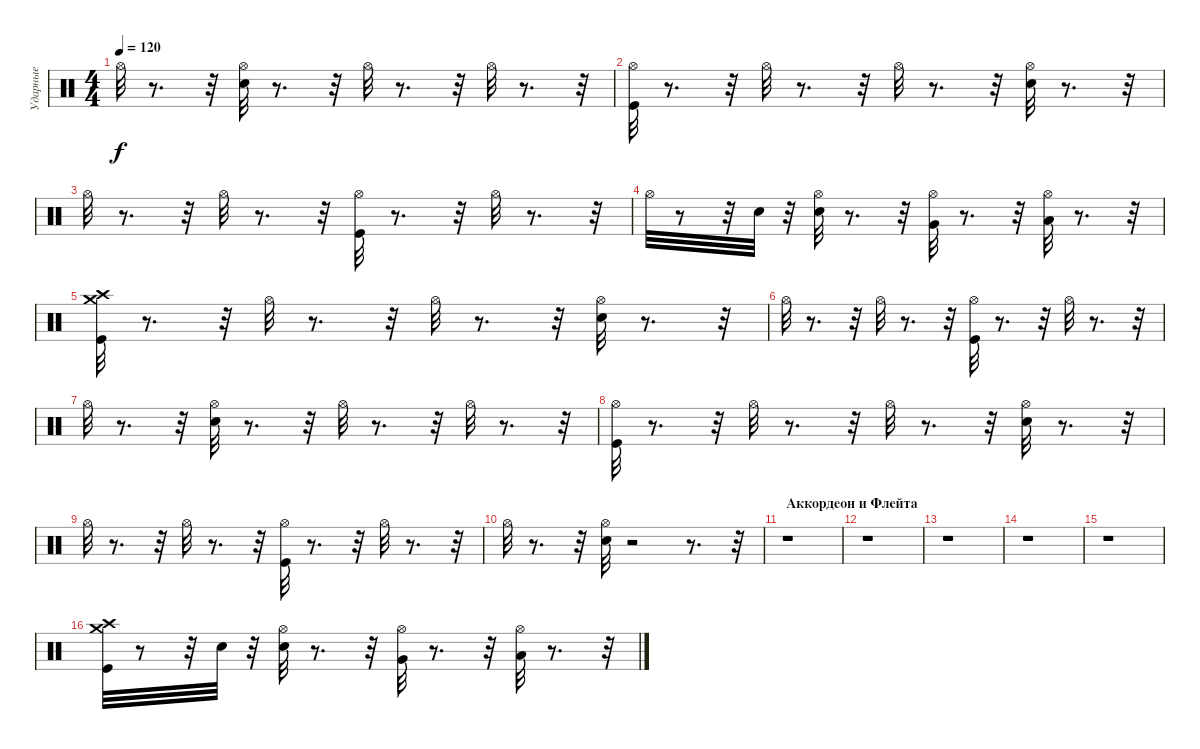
\track ("Ударные" "Ударные") {instrument percussion}
\staff {score}
\articulation defaults
\ts (4 4)
\tempo 120
\clef neutral
\ks c "Hi-Hat (open)".32{dy f}
r.8{d} r.32 ("Hi-Hat (open)" "Snare (hit) 2").32 r.8{d} r.32 "Hi-Hat (open)".32 r.8{d} r.32 "Hi-Hat (open)".32 r.8{d} r.32 |
("Hi-Hat (open)" "Kick (hit)").32 r.8{d} r.32 "Hi-Hat (open)".32 r.8{d} r.32 "Hi-Hat (open)".32 r.8{d} r.32 ("Hi-Hat (open)" "Snare (hit) 2").32 r.8{d} r.32 |
"Hi-Hat (open)".32 r.8{d} r.32 "Hi-Hat (open)".32 r.8{d} r.32 ("Hi-Hat (open)" "Kick (hit)").32 r.8{d} r.32 "Hi-Hat (open)".32 r.8{d} r.32 |
"Hi-Hat (open)".32 r.8 r.32 "Snare (hit) 2".32 r.32 ("Hi-Hat (open)" "Snare (hit) 2").32 r.8{d} r.32 ("Very Low Tom (hit)" "Hi-Hat (open)").32 r.8{d} r.32 ("Low Floor Tom (hit)" "Hi-Hat (open)").32 r.8{d} r.32 |
("Crash high (hit)" "Crash medium (hit)" "Kick (hit)").32 r.8{d} r.32 "Hi-Hat (open)".32 r.8{d} r.32 "Hi-Hat (open)".32 r.8{d} r.32 ("Snare (hit) 2" "Hi-Hat (open)").32 r.8{d} r.32 |
"Hi-Hat (open)".32 r.8{d} r.32 "Hi-Hat (open)".32 r.8{d} r.32 ("Hi-Hat (open)" "Kick (hit)").32 r.8{d} r.32 "Hi-Hat (open)".32 r.8{d} r.32 |
"Hi-Hat (open)".32 r.8{d} r.32 ("Hi-Hat (open)" "Snare (hit) 2").32 r.8{d} r.32 "Hi-Hat (open)".32 r.8{d} r.32 "Hi-Hat (open)".32 r.8{d} r.32 |
("Kick (hit)" "Hi-Hat (open)").32 r.8{d} r.32 "Hi-Hat (open)".32 r.8{d} r.32 "Hi-Hat (open)".32 r.8{d} r.32 ("Hi-Hat (open)" "Snare (hit) 2").32 r.8{d} r.32 |
"Hi-Hat (open)".32 r.8{d} r.32 "Hi-Hat (open)".32 r.8{d} r.32 ("Hi-Hat (open)" "Kick (hit)").32 r.8{d} r.32 "Hi-Hat (open)".32 r.8{d} r.32 |
"Hi-Hat (open)".32 r.8{d} r.32 ("Hi-Hat (open)" "Snare (hit) 2").32 r.2 r.8{d} r.32 |
\section ("" " Аккордеон и Флейта")
r.1 |
r.1 |
r.1 |
r.1 |
r.1 |
("Crash high (hit)" "Crash medium (hit)" "Kick (hit)").32 r.8 r.32 "Snare (hit) 2".32 r.32 ("Hi-Hat (open)" "Snare (hit) 2").32 r.8{d} r.32 ("Very Low Tom (hit)" "Hi-Hat (open)").32 r.8{d} r.32 ("Low Floor Tom (hit)" "Hi-Hat (open)").32 r.8{d} r.32
